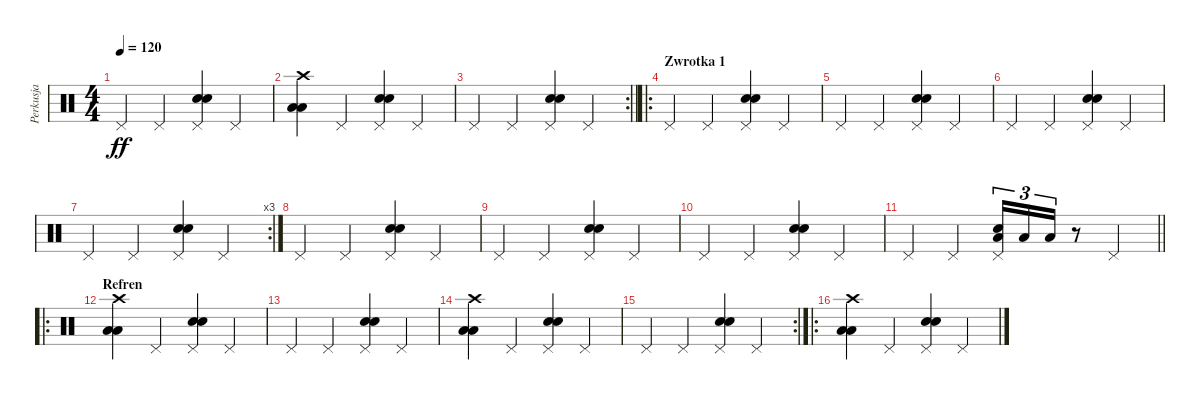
\track ("Perkusja" "Perkusja") {instrument percussion}
\staff {score}
\articulation defaults
\ts (4 4)
\tempo 120
\clef neutral
\ks c "Pedal Hi-Hat (hit)".4{dy ff} "Pedal Hi-Hat (hit)".4
("Pedal Hi-Hat (hit)" "Snare (hit) 2" "Snare (hit) 2").4 "Pedal Hi-Hat (hit)".4 |
("Low Tom (hit)" "Low Tom (hit)" "Crash high (hit)").4 "Pedal Hi-Hat (hit)".4 ("Pedal Hi-Hat (hit)" "Snare (hit) 2" "Snare (hit) 2").4 "Pedal Hi-Hat (hit)".4 |
\rc 2
\barLineRight lightlight "Pedal Hi-Hat (hit)".4 "Pedal Hi-Hat (hit)".4
("Pedal Hi-Hat (hit)" "Snare (hit) 2" "Snare (hit) 2").4 "Pedal Hi-Hat (hit)".4 |
\ro
\section ("" "Zwrotka 1")
"Pedal Hi-Hat (hit)".4 "Pedal Hi-Hat (hit)".4 ("Pedal Hi-Hat (hit)" "Snare (hit) 2" "Snare (hit) 2").4 "Pedal Hi-Hat (hit)".4 |
"Pedal Hi-Hat (hit)".4 "Pedal Hi-Hat (hit)".4 ("Pedal Hi-Hat (hit)" "Snare (hit) 2" "Snare (hit) 2").4 "Pedal Hi-Hat (hit)".4 |
"Pedal Hi-Hat (hit)".4 "Pedal Hi-Hat (hit)".4 ("Pedal Hi-Hat (hit)" "Snare (hit) 2" "Snare (hit) 2").4 "Pedal Hi-Hat (hit)".4 |
\rc 3 "Pedal Hi-Hat (hit)".4 "Pedal Hi-Hat (hit)".4
("Pedal Hi-Hat (hit)" "Snare (hit) 2" "Snare (hit) 2").4 "Pedal Hi-Hat (hit)".4 |
"Pedal Hi-Hat (hit)".4 "Pedal Hi-Hat (hit)".4 ("Pedal Hi-Hat (hit)" "Snare (hit) 2" "Snare (hit) 2").4 "Pedal Hi-Hat (hit)".4 |
"Pedal Hi-Hat (hit)".4 "Pedal Hi-Hat (hit)".4 ("Pedal Hi-Hat (hit)" "Snare (hit) 2" "Snare (hit) 2").4 "Pedal Hi-Hat (hit)".4 |
"Pedal Hi-Hat (hit)".4 "Pedal Hi-Hat (hit)".4 ("Pedal Hi-Hat (hit)" "Snare (hit) 2" "Snare (hit) 2").4 "Pedal Hi-Hat (hit)".4 |
\barLineRight lightlight "Pedal Hi-Hat (hit)".4 "Pedal Hi-Hat (hit)".4
("Pedal Hi-Hat (hit)" "Low Tom (hit)" "Snare (hit) 2").16{tu (3 2)} "Low Tom (hit)".16{tu (3 2)} "Low Tom (hit)".16{tu (3 2)} r.8 "Pedal Hi-Hat (hit)".4 |
\ro
\section ("" "Refren")
("Low Tom (hit)" "Low Tom (hit)" "Crash high (hit)").4 "Pedal Hi-Hat (hit)".4 ("Pedal Hi-Hat (hit)" "Snare (hit) 2" "Snare (hit) 2").4 "Pedal Hi-Hat (hit)".4 |
"Pedal Hi-Hat (hit)".4 "Pedal Hi-Hat (hit)".4 ("Pedal Hi-Hat (hit)" "Snare (hit) 2" "Snare (hit) 2").4 "Pedal Hi-Hat (hit)".4 |
("Low Tom (hit)" "Low Tom (hit)" "Crash high (hit)").4 "Pedal Hi-Hat (hit)".4 ("Pedal Hi-Hat (hit)" "Snare (hit) 2" "Snare (hit) 2").4 "Pedal Hi-Hat (hit)".4 |
\rc 2 "Pedal Hi-Hat (hit)".4 "Pedal Hi-Hat (hit)".4
("Pedal Hi-Hat (hit)" "Snare (hit) 2" "Snare (hit) 2").4 "Pedal Hi-Hat (hit)".4 |
\ro
("Low Tom (hit)" "Low Tom (hit)" "Crash high (hit)").4 "Pedal Hi-Hat (hit)".4 ("Pedal Hi-Hat (hit)" "Snare (hit) 2" "Snare (hit) 2").4 "Pedal Hi-Hat (hit)".4
